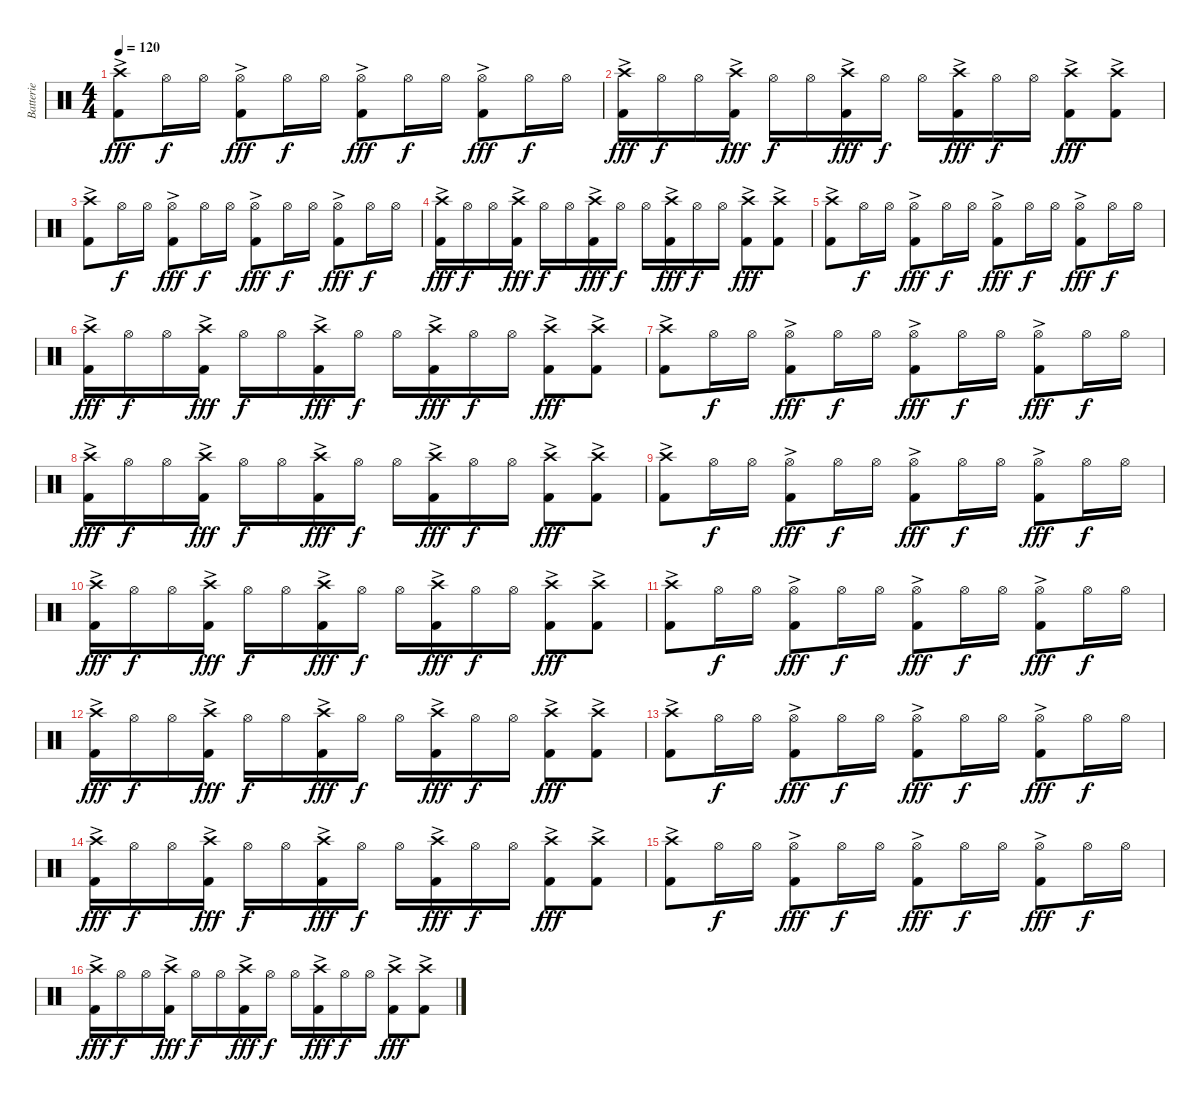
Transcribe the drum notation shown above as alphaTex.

\track ("Batterie" "Batterie") {instrument percussion}
\staff {score}
\articulation defaults
\ts (4 4)
\tempo 120
\clef neutral
\ks c
("Crash high (hit)"{ac} "Kick (hit) 2").8{dy fff} "Hi-Hat (open)".16{dy f} "Hi-Hat (open)".16 ("Hi-Hat (open)"{ac} "Kick (hit) 2").8{dy fff} "Hi-Hat (open)".16{dy f} "Hi-Hat (open)".16 ("Hi-Hat (open)"{ac} "Kick (hit) 2").8{dy fff} "Hi-Hat (open)".16{dy f} "Hi-Hat (open)".16 ("Hi-Hat (open)"{ac} "Kick (hit) 2").8{dy fff} "Hi-Hat (open)".16{dy f} "Hi-Hat (open)".16 |
("Crash high (hit)"{ac} "Kick (hit) 2").16{dy fff} "Hi-Hat (open)".16{dy f} "Hi-Hat (open)".16 ("Crash high (hit)"{ac} "Kick (hit) 2").16{dy fff} "Hi-Hat (open)".16{dy f} "Hi-Hat (open)".16 ("Crash high (hit)"{ac} "Kick (hit) 2").16{dy fff} "Hi-Hat (open)".16{dy f} "Hi-Hat (open)".16 ("Crash high (hit)"{ac} "Kick (hit) 2").16{dy fff} "Hi-Hat (open)".16{dy f} "Hi-Hat (open)".16 ("Crash high (hit)"{ac} "Kick (hit) 2").8{dy fff} ("Crash high (hit)"{ac} "Kick (hit) 2").8 |
("Crash high (hit)"{ac} "Kick (hit) 2").8 "Hi-Hat (open)".16{dy f} "Hi-Hat (open)".16 ("Hi-Hat (open)"{ac} "Kick (hit) 2").8{dy fff} "Hi-Hat (open)".16{dy f} "Hi-Hat (open)".16 ("Hi-Hat (open)"{ac} "Kick (hit) 2").8{dy fff} "Hi-Hat (open)".16{dy f} "Hi-Hat (open)".16 ("Hi-Hat (open)"{ac} "Kick (hit) 2").8{dy fff} "Hi-Hat (open)".16{dy f} "Hi-Hat (open)".16 |
("Crash high (hit)"{ac} "Kick (hit) 2").16{dy fff} "Hi-Hat (open)".16{dy f} "Hi-Hat (open)".16 ("Crash high (hit)"{ac} "Kick (hit) 2").16{dy fff} "Hi-Hat (open)".16{dy f} "Hi-Hat (open)".16 ("Crash high (hit)"{ac} "Kick (hit) 2").16{dy fff} "Hi-Hat (open)".16{dy f} "Hi-Hat (open)".16 ("Crash high (hit)"{ac} "Kick (hit) 2").16{dy fff} "Hi-Hat (open)".16{dy f} "Hi-Hat (open)".16 ("Crash high (hit)"{ac} "Kick (hit) 2").8{dy fff} ("Crash high (hit)"{ac} "Kick (hit) 2").8 |
("Crash high (hit)"{ac} "Kick (hit) 2").8 "Hi-Hat (open)".16{dy f} "Hi-Hat (open)".16 ("Hi-Hat (open)"{ac} "Kick (hit) 2").8{dy fff} "Hi-Hat (open)".16{dy f} "Hi-Hat (open)".16 ("Hi-Hat (open)"{ac} "Kick (hit) 2").8{dy fff} "Hi-Hat (open)".16{dy f} "Hi-Hat (open)".16 ("Hi-Hat (open)"{ac} "Kick (hit) 2").8{dy fff} "Hi-Hat (open)".16{dy f} "Hi-Hat (open)".16 |
("Crash high (hit)"{ac} "Kick (hit) 2").16{dy fff} "Hi-Hat (open)".16{dy f} "Hi-Hat (open)".16 ("Crash high (hit)"{ac} "Kick (hit) 2").16{dy fff} "Hi-Hat (open)".16{dy f} "Hi-Hat (open)".16 ("Crash high (hit)"{ac} "Kick (hit) 2").16{dy fff} "Hi-Hat (open)".16{dy f} "Hi-Hat (open)".16 ("Crash high (hit)"{ac} "Kick (hit) 2").16{dy fff} "Hi-Hat (open)".16{dy f} "Hi-Hat (open)".16 ("Crash high (hit)"{ac} "Kick (hit) 2").8{dy fff} ("Crash high (hit)"{ac} "Kick (hit) 2").8 |
("Crash high (hit)"{ac} "Kick (hit) 2").8 "Hi-Hat (open)".16{dy f} "Hi-Hat (open)".16 ("Hi-Hat (open)"{ac} "Kick (hit) 2").8{dy fff} "Hi-Hat (open)".16{dy f} "Hi-Hat (open)".16 ("Hi-Hat (open)"{ac} "Kick (hit) 2").8{dy fff} "Hi-Hat (open)".16{dy f} "Hi-Hat (open)".16 ("Hi-Hat (open)"{ac} "Kick (hit) 2").8{dy fff} "Hi-Hat (open)".16{dy f} "Hi-Hat (open)".16 |
("Crash high (hit)"{ac} "Kick (hit) 2").16{dy fff} "Hi-Hat (open)".16{dy f} "Hi-Hat (open)".16 ("Crash high (hit)"{ac} "Kick (hit) 2").16{dy fff} "Hi-Hat (open)".16{dy f} "Hi-Hat (open)".16 ("Crash high (hit)"{ac} "Kick (hit) 2").16{dy fff} "Hi-Hat (open)".16{dy f} "Hi-Hat (open)".16 ("Crash high (hit)"{ac} "Kick (hit) 2").16{dy fff} "Hi-Hat (open)".16{dy f} "Hi-Hat (open)".16 ("Crash high (hit)"{ac} "Kick (hit) 2").8{dy fff} ("Crash high (hit)"{ac} "Kick (hit) 2").8 |
("Crash high (hit)"{ac} "Kick (hit) 2").8 "Hi-Hat (open)".16{dy f} "Hi-Hat (open)".16 ("Hi-Hat (open)"{ac} "Kick (hit) 2").8{dy fff} "Hi-Hat (open)".16{dy f} "Hi-Hat (open)".16 ("Hi-Hat (open)"{ac} "Kick (hit) 2").8{dy fff} "Hi-Hat (open)".16{dy f} "Hi-Hat (open)".16 ("Hi-Hat (open)"{ac} "Kick (hit) 2").8{dy fff} "Hi-Hat (open)".16{dy f} "Hi-Hat (open)".16 |
("Crash high (hit)"{ac} "Kick (hit) 2").16{dy fff} "Hi-Hat (open)".16{dy f} "Hi-Hat (open)".16 ("Crash high (hit)"{ac} "Kick (hit) 2").16{dy fff} "Hi-Hat (open)".16{dy f} "Hi-Hat (open)".16 ("Crash high (hit)"{ac} "Kick (hit) 2").16{dy fff} "Hi-Hat (open)".16{dy f} "Hi-Hat (open)".16 ("Crash high (hit)"{ac} "Kick (hit) 2").16{dy fff} "Hi-Hat (open)".16{dy f} "Hi-Hat (open)".16 ("Crash high (hit)"{ac} "Kick (hit) 2").8{dy fff} ("Crash high (hit)"{ac} "Kick (hit) 2").8 |
("Crash high (hit)"{ac} "Kick (hit) 2").8 "Hi-Hat (open)".16{dy f} "Hi-Hat (open)".16 ("Hi-Hat (open)"{ac} "Kick (hit) 2").8{dy fff} "Hi-Hat (open)".16{dy f} "Hi-Hat (open)".16 ("Hi-Hat (open)"{ac} "Kick (hit) 2").8{dy fff} "Hi-Hat (open)".16{dy f} "Hi-Hat (open)".16 ("Hi-Hat (open)"{ac} "Kick (hit) 2").8{dy fff} "Hi-Hat (open)".16{dy f} "Hi-Hat (open)".16 |
("Crash high (hit)"{ac} "Kick (hit) 2").16{dy fff} "Hi-Hat (open)".16{dy f} "Hi-Hat (open)".16 ("Crash high (hit)"{ac} "Kick (hit) 2").16{dy fff} "Hi-Hat (open)".16{dy f} "Hi-Hat (open)".16 ("Crash high (hit)"{ac} "Kick (hit) 2").16{dy fff} "Hi-Hat (open)".16{dy f} "Hi-Hat (open)".16 ("Crash high (hit)"{ac} "Kick (hit) 2").16{dy fff} "Hi-Hat (open)".16{dy f} "Hi-Hat (open)".16 ("Crash high (hit)"{ac} "Kick (hit) 2").8{dy fff} ("Crash high (hit)"{ac} "Kick (hit) 2").8 |
("Crash high (hit)"{ac} "Kick (hit) 2").8 "Hi-Hat (open)".16{dy f} "Hi-Hat (open)".16 ("Hi-Hat (open)"{ac} "Kick (hit) 2").8{dy fff} "Hi-Hat (open)".16{dy f} "Hi-Hat (open)".16 ("Hi-Hat (open)"{ac} "Kick (hit) 2").8{dy fff} "Hi-Hat (open)".16{dy f} "Hi-Hat (open)".16 ("Hi-Hat (open)"{ac} "Kick (hit) 2").8{dy fff} "Hi-Hat (open)".16{dy f} "Hi-Hat (open)".16 |
("Crash high (hit)"{ac} "Kick (hit) 2").16{dy fff} "Hi-Hat (open)".16{dy f} "Hi-Hat (open)".16 ("Crash high (hit)"{ac} "Kick (hit) 2").16{dy fff} "Hi-Hat (open)".16{dy f} "Hi-Hat (open)".16 ("Crash high (hit)"{ac} "Kick (hit) 2").16{dy fff} "Hi-Hat (open)".16{dy f} "Hi-Hat (open)".16 ("Crash high (hit)"{ac} "Kick (hit) 2").16{dy fff} "Hi-Hat (open)".16{dy f} "Hi-Hat (open)".16 ("Crash high (hit)"{ac} "Kick (hit) 2").8{dy fff} ("Crash high (hit)"{ac} "Kick (hit) 2").8 |
("Crash high (hit)"{ac} "Kick (hit) 2").8 "Hi-Hat (open)".16{dy f} "Hi-Hat (open)".16 ("Hi-Hat (open)"{ac} "Kick (hit) 2").8{dy fff} "Hi-Hat (open)".16{dy f} "Hi-Hat (open)".16 ("Hi-Hat (open)"{ac} "Kick (hit) 2").8{dy fff} "Hi-Hat (open)".16{dy f} "Hi-Hat (open)".16 ("Hi-Hat (open)"{ac} "Kick (hit) 2").8{dy fff} "Hi-Hat (open)".16{dy f} "Hi-Hat (open)".16 |
("Crash high (hit)"{ac} "Kick (hit) 2").16{dy fff} "Hi-Hat (open)".16{dy f} "Hi-Hat (open)".16 ("Crash high (hit)"{ac} "Kick (hit) 2").16{dy fff} "Hi-Hat (open)".16{dy f} "Hi-Hat (open)".16 ("Crash high (hit)"{ac} "Kick (hit) 2").16{dy fff} "Hi-Hat (open)".16{dy f} "Hi-Hat (open)".16 ("Crash high (hit)"{ac} "Kick (hit) 2").16{dy fff} "Hi-Hat (open)".16{dy f} "Hi-Hat (open)".16 ("Crash high (hit)"{ac} "Kick (hit) 2").8{dy fff} ("Crash high (hit)"{ac} "Kick (hit) 2").8
